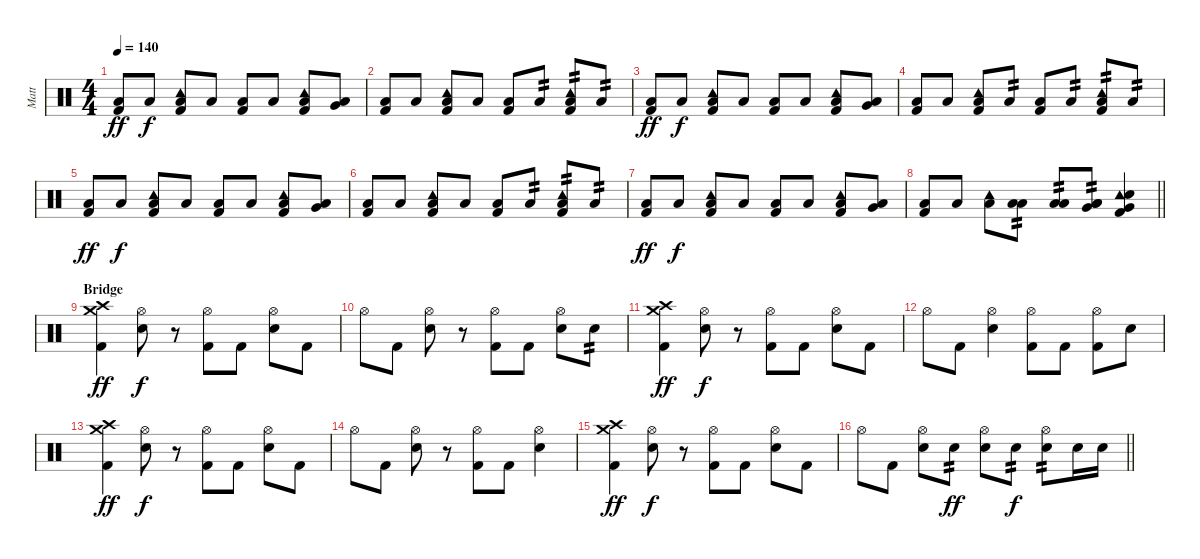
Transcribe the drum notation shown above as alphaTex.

\track ("Matt" "Matt") {instrument percussion}
\staff {score}
\articulation defaults
\ts (4 4)
\tempo 140
\clef neutral
\ks c
("Kick (hit) 2" "Low Floor Tom (hit)").8{dy ff} "Low Floor Tom (hit)".8{dy f} ("Tambourine (hit)" "Kick (hit) 2" "Low Floor Tom (hit)").8 "Low Floor Tom (hit)".8 ("Kick (hit) 2" "Low Floor Tom (hit)").8 "Low Floor Tom (hit)".8 ("Tambourine (hit)" "Kick (hit) 2" "Low Floor Tom (hit)").8 ("Very Low Tom (hit)" "Low Floor Tom (hit)").8 |
("Kick (hit) 2" "Low Floor Tom (hit)").8 "Low Floor Tom (hit)".8 ("Tambourine (hit)" "Kick (hit) 2" "Low Floor Tom (hit)").8 "Low Floor Tom (hit)".8 ("Kick (hit) 2" "Low Floor Tom (hit)").8 "Low Floor Tom (hit)".8{tp 2} ("Tambourine (hit)" "Kick (hit) 2" "Low Floor Tom (hit)").8{tp 2} "Low Floor Tom (hit)".8{tp 2} |
("Kick (hit) 2" "Low Floor Tom (hit)").8{dy ff} "Low Floor Tom (hit)".8{dy f} ("Tambourine (hit)" "Kick (hit) 2" "Low Floor Tom (hit)").8 "Low Floor Tom (hit)".8 ("Kick (hit) 2" "Low Floor Tom (hit)").8 "Low Floor Tom (hit)".8 ("Tambourine (hit)" "Kick (hit) 2" "Low Floor Tom (hit)").8 ("Very Low Tom (hit)" "Low Floor Tom (hit)").8 |
("Kick (hit) 2" "Low Floor Tom (hit)").8 "Low Floor Tom (hit)".8 ("Tambourine (hit)" "Kick (hit) 2" "Low Floor Tom (hit)").8 "Low Floor Tom (hit)".8{tp 2} ("Kick (hit) 2" "Low Floor Tom (hit)").8 "Low Floor Tom (hit)".8{tp 2} ("Tambourine (hit)" "Kick (hit) 2" "Low Floor Tom (hit)").8{tp 2} "Low Floor Tom (hit)".8{tp 2} |
("Kick (hit) 2" "Low Floor Tom (hit)").8{dy ff} "Low Floor Tom (hit)".8{dy f} ("Tambourine (hit)" "Kick (hit) 2" "Low Floor Tom (hit)").8 "Low Floor Tom (hit)".8 ("Kick (hit) 2" "Low Floor Tom (hit)").8 "Low Floor Tom (hit)".8 ("Tambourine (hit)" "Kick (hit) 2" "Low Floor Tom (hit)").8 ("Very Low Tom (hit)" "Low Floor Tom (hit)").8 |
("Kick (hit) 2" "Low Floor Tom (hit)").8 "Low Floor Tom (hit)".8 ("Tambourine (hit)" "Kick (hit) 2" "Low Floor Tom (hit)").8 "Low Floor Tom (hit)".8 ("Kick (hit) 2" "Low Floor Tom (hit)").8 "Low Floor Tom (hit)".8{tp 2} ("Tambourine (hit)" "Kick (hit) 2" "Low Floor Tom (hit)").8{tp 2} "Low Floor Tom (hit)".8{tp 2} |
("Kick (hit) 2" "Low Floor Tom (hit)").8{dy ff} "Low Floor Tom (hit)".8{dy f} ("Tambourine (hit)" "Kick (hit) 2" "Low Floor Tom (hit)").8 "Low Floor Tom (hit)".8 ("Kick (hit) 2" "Low Floor Tom (hit)").8 "Low Floor Tom (hit)".8 ("Tambourine (hit)" "Kick (hit) 2" "Low Floor Tom (hit)").8 ("Very Low Tom (hit)" "Low Floor Tom (hit)").8 |
\barLineRight lightlight
("Kick (hit) 2" "Low Floor Tom (hit)").8 "Low Floor Tom (hit)".8 ("Tambourine (hit)" "Low Floor Tom (hit)").8 ("Low Tom (hit)" "Low Floor Tom (hit)").8{tp 2} ("Low Tom (hit)" "Low Floor Tom (hit)").8{tp 2} ("Very Low Tom (hit)" "Low Tom (hit)" "Low Floor Tom (hit)").8{tp 2} ("Very Low Tom (hit)" "Tambourine (hit)" "Snare (hit) 2" "Kick (hit) 2").4 |
\section ("" "Bridge")
("Crash high (hit)" "Crash medium (hit)" "Kick (hit) 2").4{dy ff} ("Hi-Hat (open)" "Snare (hit) 2").8{dy f} r.8 ("Hi-Hat (open)" "Kick (hit) 2").8 "Kick (hit) 2".8 ("Hi-Hat (open)" "Snare (hit) 2").8 "Kick (hit) 2".8 |
"Hi-Hat (open)".8 "Kick (hit) 2".8 ("Hi-Hat (open)" "Snare (hit) 2").8 r.8 ("Hi-Hat (open)" "Kick (hit) 2").8 "Kick (hit) 2".8 ("Hi-Hat (open)" "Snare (hit) 2").8 "Snare (hit) 2".8{tp 2} |
("Crash high (hit)" "Crash medium (hit)" "Kick (hit) 2").4{dy ff} ("Hi-Hat (open)" "Snare (hit) 2").8{dy f} r.8 ("Hi-Hat (open)" "Kick (hit) 2").8 "Kick (hit) 2".8 ("Hi-Hat (open)" "Snare (hit) 2").8 "Kick (hit) 2".8 |
"Hi-Hat (open)".8 "Kick (hit) 2".8 ("Hi-Hat (open)" "Snare (hit) 2").4 ("Hi-Hat (open)" "Kick (hit) 2").8 "Kick (hit) 2".8 ("Hi-Hat (open)" "Kick (hit) 2").8 "Snare (hit) 2".8 |
("Crash high (hit)" "Crash medium (hit)" "Kick (hit) 2").4{dy ff} ("Hi-Hat (open)" "Snare (hit) 2").8{dy f} r.8 ("Hi-Hat (open)" "Kick (hit) 2").8 "Kick (hit) 2".8 ("Hi-Hat (open)" "Snare (hit) 2").8 "Kick (hit) 2".8 |
"Hi-Hat (open)".8 "Kick (hit) 2".8 ("Hi-Hat (open)" "Snare (hit) 2").8 r.8 ("Hi-Hat (open)" "Kick (hit) 2").8 "Kick (hit) 2".8 ("Hi-Hat (open)" "Snare (hit) 2").4 |
("Crash high (hit)" "Crash medium (hit)" "Kick (hit) 2").4{dy ff} ("Hi-Hat (open)" "Snare (hit) 2").8{dy f} r.8 ("Hi-Hat (open)" "Kick (hit) 2").8 "Kick (hit) 2".8 ("Hi-Hat (open)" "Snare (hit) 2").8 "Kick (hit) 2".8 |
\barLineRight lightlight "Hi-Hat (open)".8 "Kick (hit) 2".8
("Hi-Hat (open)" "Snare (hit) 2").8 "Snare (hit) 2".8{tp 2 dy ff} ("Hi-Hat (open)" "Snare (hit) 2").8 "Snare (hit) 2".8{tp 2 dy f} ("Hi-Hat (open)" "Snare (hit) 2").8{tp 2} "Snare (hit) 2".16 "Snare (hit) 2".16
